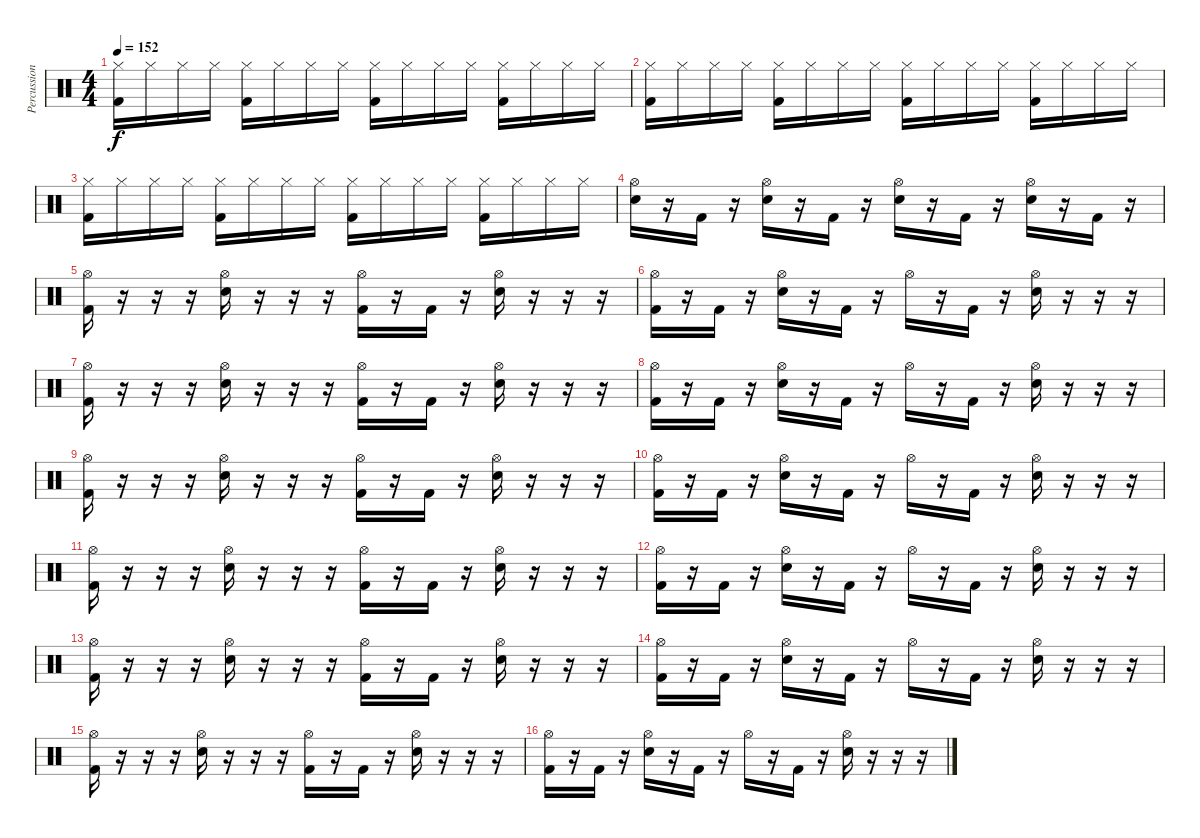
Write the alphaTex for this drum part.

\track ("Percussions" "Percussion") {instrument percussion}
\staff {score}
\articulation defaults
\ts (4 4)
\tempo 152
\clef neutral
\ks c
("Kick (hit) 2" "Hi-Hat (closed)").16{dy f} "Hi-Hat (closed)".16 "Hi-Hat (closed)".16 "Hi-Hat (closed)".16 ("Kick (hit) 2" "Hi-Hat (closed)").16 "Hi-Hat (closed)".16 "Hi-Hat (closed)".16 "Hi-Hat (closed)".16 ("Kick (hit) 2" "Hi-Hat (closed)").16 "Hi-Hat (closed)".16 "Hi-Hat (closed)".16 "Hi-Hat (closed)".16 ("Kick (hit) 2" "Hi-Hat (closed)").16 "Hi-Hat (closed)".16 "Hi-Hat (closed)".16 "Hi-Hat (closed)".16 |
("Kick (hit) 2" "Hi-Hat (closed)").16 "Hi-Hat (closed)".16 "Hi-Hat (closed)".16 "Hi-Hat (closed)".16 ("Kick (hit) 2" "Hi-Hat (closed)").16 "Hi-Hat (closed)".16 "Hi-Hat (closed)".16 "Hi-Hat (closed)".16 ("Kick (hit) 2" "Hi-Hat (closed)").16 "Hi-Hat (closed)".16 "Hi-Hat (closed)".16 "Hi-Hat (closed)".16 ("Kick (hit) 2" "Hi-Hat (closed)").16 "Hi-Hat (closed)".16 "Hi-Hat (closed)".16 "Hi-Hat (closed)".16 |
("Kick (hit) 2" "Hi-Hat (closed)").16 "Hi-Hat (closed)".16 "Hi-Hat (closed)".16 "Hi-Hat (closed)".16 ("Kick (hit) 2" "Hi-Hat (closed)").16 "Hi-Hat (closed)".16 "Hi-Hat (closed)".16 "Hi-Hat (closed)".16 ("Kick (hit) 2" "Hi-Hat (closed)").16 "Hi-Hat (closed)".16 "Hi-Hat (closed)".16 "Hi-Hat (closed)".16 ("Kick (hit) 2" "Hi-Hat (closed)").16 "Hi-Hat (closed)".16 "Hi-Hat (closed)".16 "Hi-Hat (closed)".16 |
("Hi-Hat (open)" "Electric Snare (hit)").16 r.16 "Kick (hit) 2".16 r.16 ("Hi-Hat (open)" "Electric Snare (hit)").16 r.16 "Kick (hit) 2".16 r.16 ("Hi-Hat (open)" "Electric Snare (hit)").16 r.16 "Kick (hit) 2".16 r.16 ("Hi-Hat (open)" "Electric Snare (hit)").16 r.16 "Kick (hit) 2".16 r.16 |
("Kick (hit) 2" "Hi-Hat (open)").16 r.16 r.16 r.16 ("Electric Snare (hit)" "Hi-Hat (open)").16 r.16 r.16 r.16 ("Kick (hit) 2" "Hi-Hat (open)").16 r.16 "Kick (hit) 2".16 r.16 ("Electric Snare (hit)" "Hi-Hat (open)").16 r.16 r.16 r.16 |
("Kick (hit) 2" "Hi-Hat (open)").16 r.16 "Kick (hit) 2".16 r.16 ("Electric Snare (hit)" "Hi-Hat (open)").16 r.16 "Kick (hit) 2".16 r.16 "Hi-Hat (open)".16 r.16 "Kick (hit) 2".16 r.16 ("Electric Snare (hit)" "Hi-Hat (open)").16 r.16 r.16 r.16 |
("Kick (hit) 2" "Hi-Hat (open)").16 r.16 r.16 r.16 ("Electric Snare (hit)" "Hi-Hat (open)").16 r.16 r.16 r.16 ("Kick (hit) 2" "Hi-Hat (open)").16 r.16 "Kick (hit) 2".16 r.16 ("Electric Snare (hit)" "Hi-Hat (open)").16 r.16 r.16 r.16 |
("Kick (hit) 2" "Hi-Hat (open)").16 r.16 "Kick (hit) 2".16 r.16 ("Electric Snare (hit)" "Hi-Hat (open)").16 r.16 "Kick (hit) 2".16 r.16 "Hi-Hat (open)".16 r.16 "Kick (hit) 2".16 r.16 ("Electric Snare (hit)" "Hi-Hat (open)").16 r.16 r.16 r.16 |
("Kick (hit) 2" "Hi-Hat (open)").16 r.16 r.16 r.16 ("Electric Snare (hit)" "Hi-Hat (open)").16 r.16 r.16 r.16 ("Kick (hit) 2" "Hi-Hat (open)").16 r.16 "Kick (hit) 2".16 r.16 ("Electric Snare (hit)" "Hi-Hat (open)").16 r.16 r.16 r.16 |
("Kick (hit) 2" "Hi-Hat (open)").16 r.16 "Kick (hit) 2".16 r.16 ("Electric Snare (hit)" "Hi-Hat (open)").16 r.16 "Kick (hit) 2".16 r.16 "Hi-Hat (open)".16 r.16 "Kick (hit) 2".16 r.16 ("Electric Snare (hit)" "Hi-Hat (open)").16 r.16 r.16 r.16 |
("Kick (hit) 2" "Hi-Hat (open)").16 r.16 r.16 r.16 ("Electric Snare (hit)" "Hi-Hat (open)").16 r.16 r.16 r.16 ("Kick (hit) 2" "Hi-Hat (open)").16 r.16 "Kick (hit) 2".16 r.16 ("Electric Snare (hit)" "Hi-Hat (open)").16 r.16 r.16 r.16 |
("Kick (hit) 2" "Hi-Hat (open)").16 r.16 "Kick (hit) 2".16 r.16 ("Electric Snare (hit)" "Hi-Hat (open)").16 r.16 "Kick (hit) 2".16 r.16 "Hi-Hat (open)".16 r.16 "Kick (hit) 2".16 r.16 ("Electric Snare (hit)" "Hi-Hat (open)").16 r.16 r.16 r.16 |
("Kick (hit) 2" "Hi-Hat (open)").16 r.16 r.16 r.16 ("Electric Snare (hit)" "Hi-Hat (open)").16 r.16 r.16 r.16 ("Kick (hit) 2" "Hi-Hat (open)").16 r.16 "Kick (hit) 2".16 r.16 ("Electric Snare (hit)" "Hi-Hat (open)").16 r.16 r.16 r.16 |
("Kick (hit) 2" "Hi-Hat (open)").16 r.16 "Kick (hit) 2".16 r.16 ("Electric Snare (hit)" "Hi-Hat (open)").16 r.16 "Kick (hit) 2".16 r.16 "Hi-Hat (open)".16 r.16 "Kick (hit) 2".16 r.16 ("Electric Snare (hit)" "Hi-Hat (open)").16 r.16 r.16 r.16 |
("Kick (hit) 2" "Hi-Hat (open)").16 r.16 r.16 r.16 ("Electric Snare (hit)" "Hi-Hat (open)").16 r.16 r.16 r.16 ("Kick (hit) 2" "Hi-Hat (open)").16 r.16 "Kick (hit) 2".16 r.16 ("Electric Snare (hit)" "Hi-Hat (open)").16 r.16 r.16 r.16 |
("Kick (hit) 2" "Hi-Hat (open)").16 r.16 "Kick (hit) 2".16 r.16 ("Electric Snare (hit)" "Hi-Hat (open)").16 r.16 "Kick (hit) 2".16 r.16 "Hi-Hat (open)".16 r.16 "Kick (hit) 2".16 r.16 ("Electric Snare (hit)" "Hi-Hat (open)").16 r.16 r.16 r.16
